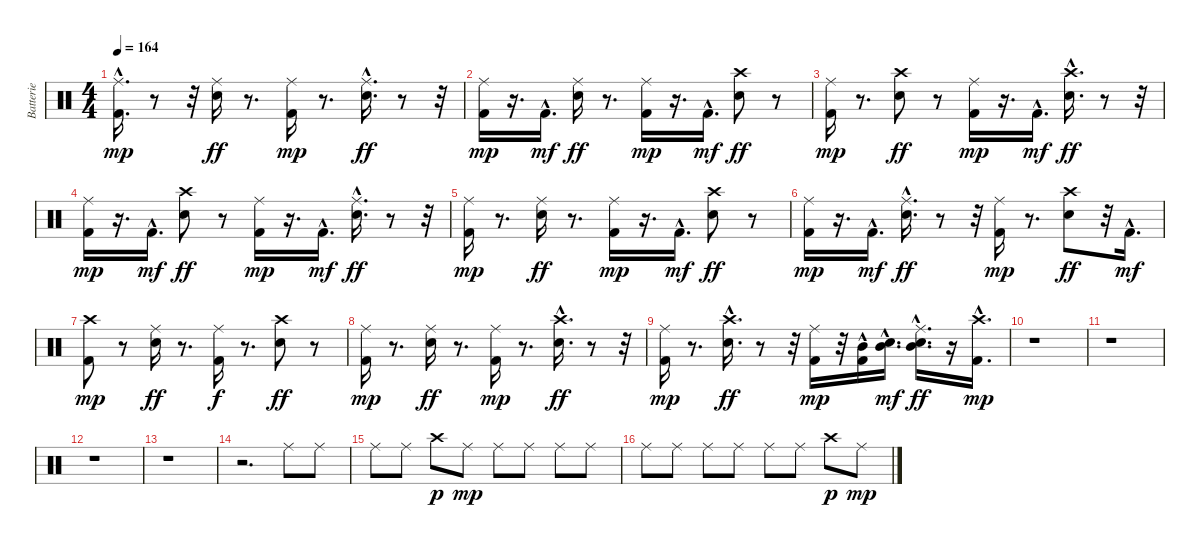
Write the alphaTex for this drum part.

\track ("Batterie" "Batterie") {instrument percussion}
\staff {score}
\articulation defaults
\ts (4 4)
\tempo 164
\clef neutral
\ks c
("Kick (hit) 2" "Ride (middle)"{hac}).16{d dy mp} r.8 r.32 ("Ride (middle)" "Electric Snare (hit)").16{dy ff} r.8{d} ("Kick (hit) 2" "Ride (middle)").16{dy mp} r.8{d} ("Ride (middle)"{hac} "Electric Snare (hit)").16{d dy ff} r.8 r.32 |
("Kick (hit) 2" "Ride (middle)").16{dy mp} r.16{d} "Kick (hit) 2"{hac}.16{d dy mf} ("Ride (middle)" "Electric Snare (hit)").16{dy ff} r.8{d} ("Kick (hit) 2" "Ride (middle)").16{dy mp} r.16{d} "Kick (hit) 2"{hac}.16{d dy mf} ("Crash high (hit)" "Electric Snare (hit)").8{dy ff} r.8 |
("Kick (hit) 2" "Ride (middle)").16{dy mp} r.8{d} ("Crash high (hit)" "Electric Snare (hit)").8{dy ff} r.8 ("Kick (hit) 2" "Ride (middle)").16{dy mp} r.16{d} "Kick (hit) 2"{hac}.16{d dy mf} ("Crash high (hit)"{hac} "Electric Snare (hit)").16{d dy ff} r.8 r.32 |
("Kick (hit) 2" "Ride (middle)").16{dy mp} r.16{d} "Kick (hit) 2"{hac}.16{d dy mf} ("Crash high (hit)" "Electric Snare (hit)").8{dy ff} r.8 ("Kick (hit) 2" "Ride (middle)").16{dy mp} r.16{d} "Kick (hit) 2"{hac}.16{d dy mf} ("Ride (middle)"{hac} "Electric Snare (hit)").16{d dy ff} r.8 r.32 |
("Kick (hit) 2" "Ride (middle)").16{dy mp} r.8{d} ("Ride (middle)" "Electric Snare (hit)").16{dy ff} r.8{d} ("Kick (hit) 2" "Ride (middle)").16{dy mp} r.16{d} "Kick (hit) 2"{hac}.16{d dy mf} ("Crash high (hit)" "Electric Snare (hit)").8{dy ff} r.8 |
("Kick (hit) 2" "Ride (middle)").16{dy mp} r.16{d} "Kick (hit) 2"{hac}.16{d dy mf} ("Ride (middle)"{hac} "Electric Snare (hit)").16{d dy ff} r.8 r.32 ("Kick (hit) 2" "Ride (middle)").16{dy mp} r.8{d} ("Crash high (hit)" "Electric Snare (hit)").8{dy ff} r.32 "Kick (hit) 2"{hac}.16{d dy mf} |
("Kick (hit) 2" "Crash high (hit)").8{dy mp} r.8 ("Ride (middle)" "Electric Snare (hit)").16{dy ff} r.8{d} ("Kick (hit) 2" "Ride (middle)").16{dy f} r.8{d} ("Crash high (hit)" "Electric Snare (hit)").8{dy ff} r.8 |
("Kick (hit) 2" "Ride (middle)").16{dy mp} r.8{d} ("Ride (middle)" "Electric Snare (hit)").16{dy ff} r.8{d} ("Kick (hit) 2" "Ride (middle)").16{dy mp} r.8{d} ("Crash high (hit)"{hac} "Electric Snare (hit)").16{d dy ff} r.8 r.32 |
("Kick (hit) 2" "Ride (middle)").16{dy mp} r.8{d} ("Crash high (hit)"{hac} "Electric Snare (hit)").16{d dy ff} r.8 r.32 ("Kick (hit) 2" "Ride (middle)").16{dy mp} r.32 ("Kick (hit) 2"{hac} "Mid Tom (hit)"{hac}).16 ("Mid Tom (hit)"{hac} "Electric Snare (hit)"{hac}).16{d dy mf} ("Ride (middle)"{hac} "Mid Tom (hit)"{hac} "Electric Snare (hit)").16{d dy ff} r.16 ("Kick (hit) 2"{hac} "Crash high (hit)").16{d dy mp} |
r.1 |
r.1 |
r.1 |
r.1 |
r.2{d} "Ride (middle)".8 "Ride (middle)".8 |
"Ride (middle)".8 "Ride (middle)".8 "Crash high (hit)".8{dy p} "Ride (middle)".8{dy mp} "Ride (middle)".8 "Ride (middle)".8 "Ride (middle)".8 "Ride (middle)".8 |
"Ride (middle)".8 "Ride (middle)".8 "Ride (middle)".8 "Ride (middle)".8 "Ride (middle)".8 "Ride (middle)".8 "Crash high (hit)".8{dy p} "Ride (middle)".8{dy mp}
